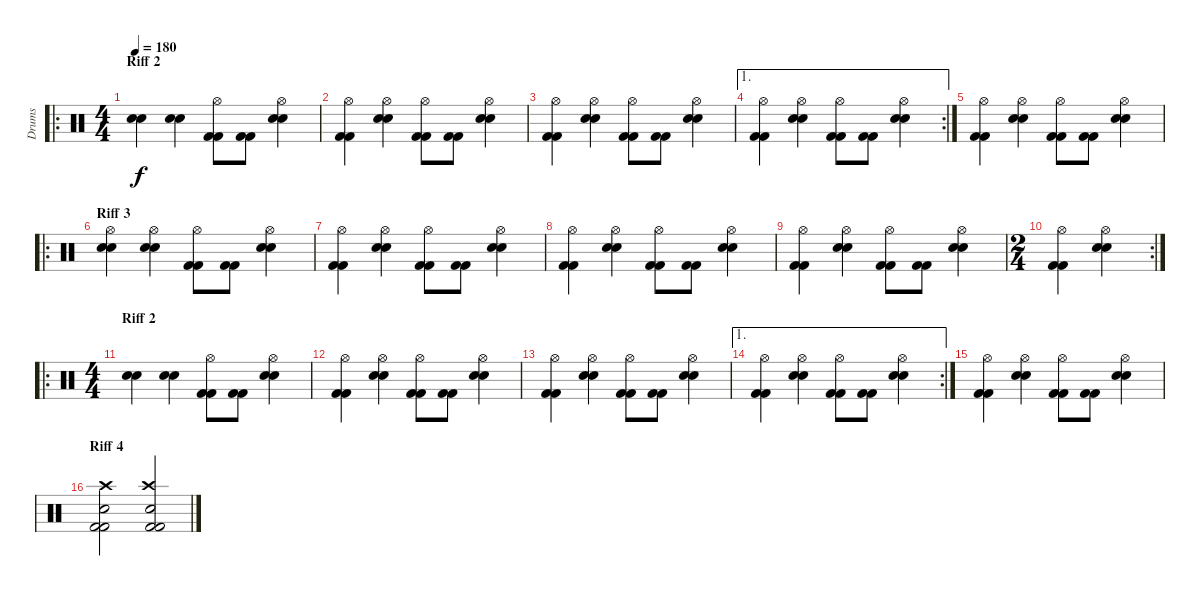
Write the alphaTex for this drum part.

\track ("Drums" "Drums") {instrument percussion}
\staff {score}
\articulation defaults
\ro
\ts (4 4)
\section ("" "Riff 2")
\tempo 180
\clef neutral
\ks c
("Snare (hit) 2" "Snare (hit) 2").4{dy f} ("Snare (hit) 2" "Snare (hit) 2").4 ("Hi-Hat (open)" "Kick (hit) 2" "Kick (hit) 2").8 ("Kick (hit) 2" "Kick (hit) 2").8 ("Hi-Hat (open)" "Snare (hit) 2" "Snare (hit) 2").4 |
("Hi-Hat (open)" "Kick (hit) 2" "Kick (hit) 2").4 ("Hi-Hat (open)" "Snare (hit) 2" "Snare (hit) 2").4 ("Hi-Hat (open)" "Kick (hit) 2" "Kick (hit) 2").8 ("Kick (hit) 2" "Kick (hit) 2").8 ("Hi-Hat (open)" "Snare (hit) 2" "Snare (hit) 2").4 |
("Hi-Hat (open)" "Kick (hit) 2" "Kick (hit) 2").4 ("Hi-Hat (open)" "Snare (hit) 2" "Snare (hit) 2").4 ("Hi-Hat (open)" "Kick (hit) 2" "Kick (hit) 2").8 ("Kick (hit) 2" "Kick (hit) 2").8 ("Hi-Hat (open)" "Snare (hit) 2" "Snare (hit) 2").4 |
\ae 1
\rc 2
("Hi-Hat (open)" "Kick (hit) 2" "Kick (hit) 2").4 ("Hi-Hat (open)" "Snare (hit) 2" "Snare (hit) 2").4 ("Hi-Hat (open)" "Kick (hit) 2" "Kick (hit) 2").8 ("Kick (hit) 2" "Kick (hit) 2").8 ("Hi-Hat (open)" "Snare (hit) 2" "Snare (hit) 2").4 |
("Hi-Hat (open)" "Kick (hit) 2" "Kick (hit) 2").4 ("Hi-Hat (open)" "Snare (hit) 2" "Snare (hit) 2").4 ("Hi-Hat (open)" "Kick (hit) 2" "Kick (hit) 2").8 ("Kick (hit) 2" "Kick (hit) 2").8 ("Hi-Hat (open)" "Snare (hit) 2" "Snare (hit) 2").4 |
\ro
\section ("" "Riff 3")
("Hi-Hat (open)" "Snare (hit) 2" "Snare (hit) 2").4 ("Hi-Hat (open)" "Snare (hit) 2" "Snare (hit) 2").4 ("Hi-Hat (open)" "Kick (hit) 2" "Kick (hit) 2").8 ("Kick (hit) 2" "Kick (hit) 2").8 ("Hi-Hat (open)" "Snare (hit) 2" "Snare (hit) 2").4 |
("Hi-Hat (open)" "Kick (hit) 2" "Kick (hit) 2").4 ("Hi-Hat (open)" "Snare (hit) 2" "Snare (hit) 2").4 ("Hi-Hat (open)" "Kick (hit) 2" "Kick (hit) 2").8 ("Kick (hit) 2" "Kick (hit) 2").8 ("Hi-Hat (open)" "Snare (hit) 2" "Snare (hit) 2").4 |
("Hi-Hat (open)" "Kick (hit) 2" "Kick (hit) 2").4 ("Hi-Hat (open)" "Snare (hit) 2" "Snare (hit) 2").4 ("Hi-Hat (open)" "Kick (hit) 2" "Kick (hit) 2").8 ("Kick (hit) 2" "Kick (hit) 2").8 ("Hi-Hat (open)" "Snare (hit) 2" "Snare (hit) 2").4 |
("Hi-Hat (open)" "Kick (hit) 2" "Kick (hit) 2").4 ("Hi-Hat (open)" "Snare (hit) 2" "Snare (hit) 2").4 ("Hi-Hat (open)" "Kick (hit) 2" "Kick (hit) 2").8 ("Kick (hit) 2" "Kick (hit) 2").8 ("Hi-Hat (open)" "Snare (hit) 2" "Snare (hit) 2").4 |
\rc 2
\ts (2 4)
("Hi-Hat (open)" "Kick (hit) 2" "Kick (hit) 2").4 ("Hi-Hat (open)" "Snare (hit) 2" "Snare (hit) 2").4 |
\ro
\ts (4 4)
\section ("" "Riff 2")
("Snare (hit) 2" "Snare (hit) 2").4 ("Snare (hit) 2" "Snare (hit) 2").4 ("Hi-Hat (open)" "Kick (hit) 2" "Kick (hit) 2").8 ("Kick (hit) 2" "Kick (hit) 2").8 ("Hi-Hat (open)" "Snare (hit) 2" "Snare (hit) 2").4 |
("Hi-Hat (open)" "Kick (hit) 2" "Kick (hit) 2").4 ("Hi-Hat (open)" "Snare (hit) 2" "Snare (hit) 2").4 ("Hi-Hat (open)" "Kick (hit) 2" "Kick (hit) 2").8 ("Kick (hit) 2" "Kick (hit) 2").8 ("Hi-Hat (open)" "Snare (hit) 2" "Snare (hit) 2").4 |
("Hi-Hat (open)" "Kick (hit) 2" "Kick (hit) 2").4 ("Hi-Hat (open)" "Snare (hit) 2" "Snare (hit) 2").4 ("Hi-Hat (open)" "Kick (hit) 2" "Kick (hit) 2").8 ("Kick (hit) 2" "Kick (hit) 2").8 ("Hi-Hat (open)" "Snare (hit) 2" "Snare (hit) 2").4 |
\ae 1
\rc 2
("Hi-Hat (open)" "Kick (hit) 2" "Kick (hit) 2").4 ("Hi-Hat (open)" "Snare (hit) 2" "Snare (hit) 2").4 ("Hi-Hat (open)" "Kick (hit) 2" "Kick (hit) 2").8 ("Kick (hit) 2" "Kick (hit) 2").8 ("Hi-Hat (open)" "Snare (hit) 2" "Snare (hit) 2").4 |
("Hi-Hat (open)" "Kick (hit) 2" "Kick (hit) 2").4 ("Hi-Hat (open)" "Snare (hit) 2" "Snare (hit) 2").4 ("Hi-Hat (open)" "Kick (hit) 2" "Kick (hit) 2").8 ("Kick (hit) 2" "Kick (hit) 2").8 ("Hi-Hat (open)" "Snare (hit) 2" "Snare (hit) 2").4 |
\section ("" "Riff 4")
("Crash high (hit)" "Snare (hit) 2" "Kick (hit) 2" "Kick (hit) 2").2 ("Crash high (hit)" "Electric Snare (hit)" "Kick (hit) 2" "Kick (hit) 2").2
